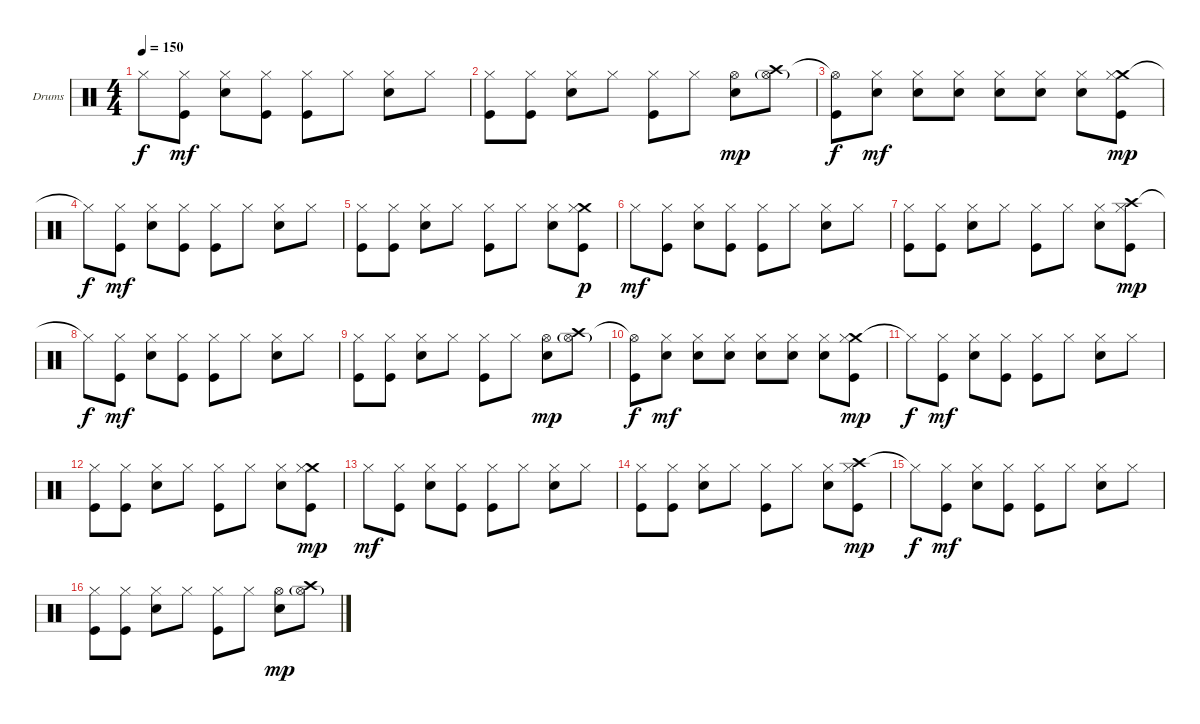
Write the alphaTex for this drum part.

\bracketExtendMode groupsimilarinstruments
\firstSystemTrackNameOrientation horizontal
\otherSystemsTrackNameOrientation horizontal
\track ("Drumkit" "Drums") {instrument percussion}
\staff {score}
\articulation defaults
\ts (4 4)
\tempo 150
\clef neutral
\ks c "Hi-Hat (closed)"{t}.8{dy f}
("Hi-Hat (closed)" "Kick (hit)").8{dy mf} ("Hi-Hat (closed)" "Snare (hit) 2").8 ("Hi-Hat (closed)" "Kick (hit)").8 ("Hi-Hat (closed)" "Kick (hit)").8 "Hi-Hat (closed)".8 ("Hi-Hat (closed)" "Snare (hit) 2").8 "Hi-Hat (closed)".8 |
("Hi-Hat (closed)" "Kick (hit)").8 ("Hi-Hat (closed)" "Kick (hit)").8 ("Hi-Hat (closed)" "Snare (hit) 2").8 "Hi-Hat (closed)".8 ("Hi-Hat (closed)" "Kick (hit)").8 "Hi-Hat (closed)".8 ("Hi-Hat (open)" "Snare (hit) 2").8{dy mp} ("Crash high (hit)" "Hi-Hat (open)"{g}).8 |
("Hi-Hat (open)"{t} "Kick (hit)").8{dy f} ("Hi-Hat (closed)" "Snare (hit) 2").8{dy mf} ("Hi-Hat (closed)" "Snare (hit) 2").8 ("Hi-Hat (closed)" "Snare (hit) 2").8 ("Hi-Hat (closed)" "Snare (hit) 2").8 ("Hi-Hat (closed)" "Snare (hit) 2").8 ("Hi-Hat (closed)" "Snare (hit) 2").8 ("Crash medium (hit)" "Hi-Hat (closed)" "Kick (hit)").8{dy mp} |
"Hi-Hat (closed)"{t}.8{dy f} ("Hi-Hat (closed)" "Kick (hit)").8{dy mf} ("Hi-Hat (closed)" "Snare (hit) 2").8 ("Hi-Hat (closed)" "Kick (hit)").8 ("Hi-Hat (closed)" "Kick (hit)").8 "Hi-Hat (closed)".8 ("Hi-Hat (closed)" "Snare (hit) 2").8 "Hi-Hat (closed)".8 |
("Hi-Hat (closed)" "Kick (hit)").8 ("Hi-Hat (closed)" "Kick (hit)").8 ("Hi-Hat (closed)" "Snare (hit) 2").8 "Hi-Hat (closed)".8 ("Hi-Hat (closed)" "Kick (hit)").8 "Hi-Hat (closed)".8 ("Hi-Hat (closed)" "Snare (hit) 2").8 ("Crash medium (hit)" "Hi-Hat (closed)" "Kick (hit)").8{dy p} |
"Hi-Hat (closed)".8{dy mf} ("Hi-Hat (closed)" "Kick (hit)").8 ("Hi-Hat (closed)" "Snare (hit) 2").8 ("Hi-Hat (closed)" "Kick (hit)").8 ("Hi-Hat (closed)" "Kick (hit)").8 "Hi-Hat (closed)".8 ("Hi-Hat (closed)" "Snare (hit) 2").8 "Hi-Hat (closed)".8 |
("Hi-Hat (closed)" "Kick (hit)").8 ("Hi-Hat (closed)" "Kick (hit)").8 ("Hi-Hat (closed)" "Snare (hit) 2").8 "Hi-Hat (closed)".8 ("Hi-Hat (closed)" "Kick (hit)").8 "Hi-Hat (closed)".8 ("Hi-Hat (closed)" "Snare (hit) 2").8 ("Crash high (hit)" "Hi-Hat (closed)" "Kick (hit)").8{dy mp} |
"Hi-Hat (closed)"{t}.8{dy f} ("Hi-Hat (closed)" "Kick (hit)").8{dy mf} ("Hi-Hat (closed)" "Snare (hit) 2").8 ("Hi-Hat (closed)" "Kick (hit)").8 ("Hi-Hat (closed)" "Kick (hit)").8 "Hi-Hat (closed)".8 ("Hi-Hat (closed)" "Snare (hit) 2").8 "Hi-Hat (closed)".8 |
("Hi-Hat (closed)" "Kick (hit)").8 ("Hi-Hat (closed)" "Kick (hit)").8 ("Hi-Hat (closed)" "Snare (hit) 2").8 "Hi-Hat (closed)".8 ("Hi-Hat (closed)" "Kick (hit)").8 "Hi-Hat (closed)".8 ("Hi-Hat (open)" "Snare (hit) 2").8{dy mp} ("Crash high (hit)" "Hi-Hat (open)"{g}).8 |
("Hi-Hat (open)"{t} "Kick (hit)").8{dy f} ("Hi-Hat (closed)" "Snare (hit) 2").8{dy mf} ("Hi-Hat (closed)" "Snare (hit) 2").8 ("Hi-Hat (closed)" "Snare (hit) 2").8 ("Hi-Hat (closed)" "Snare (hit) 2").8 ("Hi-Hat (closed)" "Snare (hit) 2").8 ("Hi-Hat (closed)" "Snare (hit) 2").8 ("Crash medium (hit)" "Hi-Hat (closed)" "Kick (hit)").8{dy mp} |
"Hi-Hat (closed)"{t}.8{dy f} ("Hi-Hat (closed)" "Kick (hit)").8{dy mf} ("Hi-Hat (closed)" "Snare (hit) 2").8 ("Hi-Hat (closed)" "Kick (hit)").8 ("Hi-Hat (closed)" "Kick (hit)").8 "Hi-Hat (closed)".8 ("Hi-Hat (closed)" "Snare (hit) 2").8 "Hi-Hat (closed)".8 |
("Hi-Hat (closed)" "Kick (hit)").8 ("Hi-Hat (closed)" "Kick (hit)").8 ("Hi-Hat (closed)" "Snare (hit) 2").8 "Hi-Hat (closed)".8 ("Hi-Hat (closed)" "Kick (hit)").8 "Hi-Hat (closed)".8 ("Hi-Hat (closed)" "Snare (hit) 2").8 ("Crash medium (hit)" "Hi-Hat (closed)" "Kick (hit)").8{dy mp} |
"Hi-Hat (closed)".8{dy mf} ("Hi-Hat (closed)" "Kick (hit)").8 ("Hi-Hat (closed)" "Snare (hit) 2").8 ("Hi-Hat (closed)" "Kick (hit)").8 ("Hi-Hat (closed)" "Kick (hit)").8 "Hi-Hat (closed)".8 ("Hi-Hat (closed)" "Snare (hit) 2").8 "Hi-Hat (closed)".8 |
("Hi-Hat (closed)" "Kick (hit)").8 ("Hi-Hat (closed)" "Kick (hit)").8 ("Hi-Hat (closed)" "Snare (hit) 2").8 "Hi-Hat (closed)".8 ("Hi-Hat (closed)" "Kick (hit)").8 "Hi-Hat (closed)".8 ("Hi-Hat (closed)" "Snare (hit) 2").8 ("Crash high (hit)" "Hi-Hat (closed)" "Kick (hit)").8{dy mp} |
"Hi-Hat (closed)"{t}.8{dy f} ("Hi-Hat (closed)" "Kick (hit)").8{dy mf} ("Hi-Hat (closed)" "Snare (hit) 2").8 ("Hi-Hat (closed)" "Kick (hit)").8 ("Hi-Hat (closed)" "Kick (hit)").8 "Hi-Hat (closed)".8 ("Hi-Hat (closed)" "Snare (hit) 2").8 "Hi-Hat (closed)".8 |
("Hi-Hat (closed)" "Kick (hit)").8 ("Hi-Hat (closed)" "Kick (hit)").8 ("Hi-Hat (closed)" "Snare (hit) 2").8 "Hi-Hat (closed)".8 ("Hi-Hat (closed)" "Kick (hit)").8 "Hi-Hat (closed)".8 ("Hi-Hat (open)" "Snare (hit) 2").8{dy mp} ("Crash high (hit)" "Hi-Hat (open)"{g}).8
